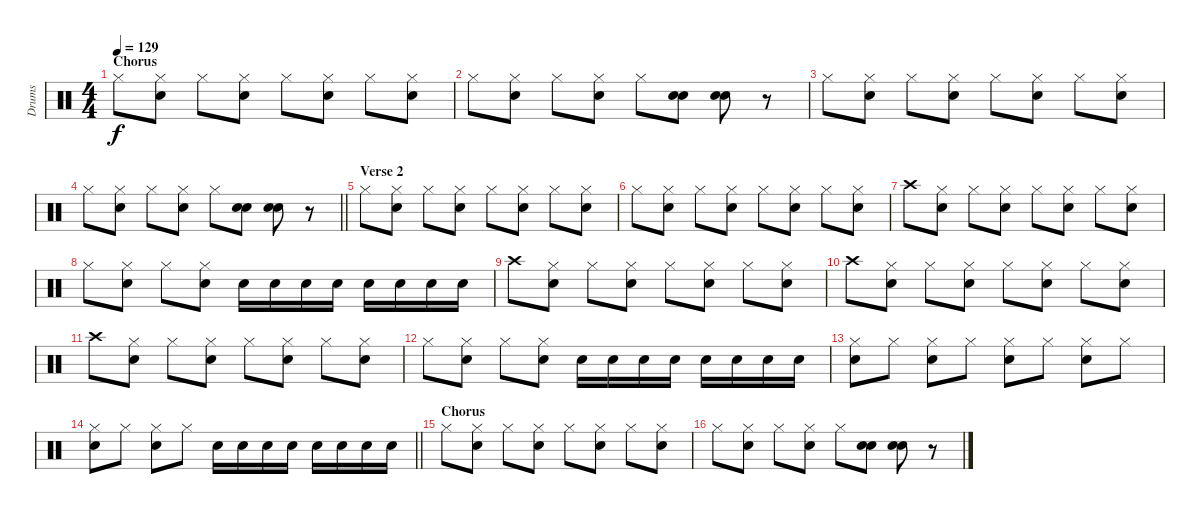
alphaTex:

\track ("Drums" "Drums") {instrument percussion}
\staff {score}
\articulation defaults
\ts (4 4)
\section ("" "Chorus")
\tempo 129
\clef neutral
\ks c "Hi-Hat (closed)".8{dy f}
("Hi-Hat (closed)" "Electric Snare (hit)").8 "Hi-Hat (closed)".8 ("Hi-Hat (closed)" "Electric Snare (hit)").8 "Hi-Hat (closed)".8 ("Hi-Hat (closed)" "Electric Snare (hit)").8 "Hi-Hat (closed)".8 ("Hi-Hat (closed)" "Electric Snare (hit)").8 |
"Hi-Hat (closed)".8 ("Hi-Hat (closed)" "Electric Snare (hit)").8 "Hi-Hat (closed)".8 ("Hi-Hat (closed)" "Electric Snare (hit)").8 "Hi-Hat (closed)".8 ("Electric Snare (hit)" "Electric Snare (hit)").8 ("Electric Snare (hit)" "Electric Snare (hit)").8 r.8 |
"Hi-Hat (closed)".8 ("Hi-Hat (closed)" "Electric Snare (hit)").8 "Hi-Hat (closed)".8 ("Hi-Hat (closed)" "Electric Snare (hit)").8 "Hi-Hat (closed)".8 ("Hi-Hat (closed)" "Electric Snare (hit)").8 "Hi-Hat (closed)".8 ("Hi-Hat (closed)" "Electric Snare (hit)").8 |
\barLineRight lightlight "Hi-Hat (closed)".8
("Hi-Hat (closed)" "Electric Snare (hit)").8 "Hi-Hat (closed)".8 ("Hi-Hat (closed)" "Electric Snare (hit)").8 "Hi-Hat (closed)".8 ("Electric Snare (hit)" "Electric Snare (hit)").8 ("Electric Snare (hit)" "Electric Snare (hit)").8 r.8 |
\section ("" "Verse 2")
"Hi-Hat (closed)".8 ("Hi-Hat (closed)" "Electric Snare (hit)").8 "Hi-Hat (closed)".8 ("Hi-Hat (closed)" "Electric Snare (hit)").8 "Hi-Hat (closed)".8 ("Hi-Hat (closed)" "Electric Snare (hit)").8 "Hi-Hat (closed)".8 ("Hi-Hat (closed)" "Electric Snare (hit)").8 |
"Hi-Hat (closed)".8 ("Hi-Hat (closed)" "Electric Snare (hit)").8 "Hi-Hat (closed)".8 ("Hi-Hat (closed)" "Electric Snare (hit)").8 "Hi-Hat (closed)".8 ("Hi-Hat (closed)" "Electric Snare (hit)").8 "Hi-Hat (closed)".8 ("Hi-Hat (closed)" "Electric Snare (hit)").8 |
"Crash high (hit)".8 ("Hi-Hat (closed)" "Electric Snare (hit)").8 "Hi-Hat (closed)".8 ("Hi-Hat (closed)" "Electric Snare (hit)").8 "Hi-Hat (closed)".8 ("Hi-Hat (closed)" "Electric Snare (hit)").8 "Hi-Hat (closed)".8 ("Hi-Hat (closed)" "Electric Snare (hit)").8 |
"Hi-Hat (closed)".8 ("Hi-Hat (closed)" "Electric Snare (hit)").8 "Hi-Hat (closed)".8 ("Hi-Hat (closed)" "Electric Snare (hit)").8 "Electric Snare (hit)".16 "Electric Snare (hit)".16 "Electric Snare (hit)".16 "Electric Snare (hit)".16 "Electric Snare (hit)".16 "Electric Snare (hit)".16 "Electric Snare (hit)".16 "Electric Snare (hit)".16 |
"Crash high (hit)".8 ("Hi-Hat (closed)" "Electric Snare (hit)").8 "Hi-Hat (closed)".8 ("Hi-Hat (closed)" "Electric Snare (hit)").8 "Hi-Hat (closed)".8 ("Hi-Hat (closed)" "Electric Snare (hit)").8 "Hi-Hat (closed)".8 ("Hi-Hat (closed)" "Electric Snare (hit)").8 |
"Crash high (hit)".8 ("Hi-Hat (closed)" "Electric Snare (hit)").8 "Hi-Hat (closed)".8 ("Hi-Hat (closed)" "Electric Snare (hit)").8 "Hi-Hat (closed)".8 ("Hi-Hat (closed)" "Electric Snare (hit)").8 "Hi-Hat (closed)".8 ("Hi-Hat (closed)" "Electric Snare (hit)").8 |
"Crash high (hit)".8 ("Hi-Hat (closed)" "Electric Snare (hit)").8 "Hi-Hat (closed)".8 ("Hi-Hat (closed)" "Electric Snare (hit)").8 "Hi-Hat (closed)".8 ("Hi-Hat (closed)" "Electric Snare (hit)").8 "Hi-Hat (closed)".8 ("Hi-Hat (closed)" "Electric Snare (hit)").8 |
"Hi-Hat (closed)".8 ("Hi-Hat (closed)" "Electric Snare (hit)").8 "Hi-Hat (closed)".8 ("Hi-Hat (closed)" "Electric Snare (hit)").8 "Electric Snare (hit)".16 "Electric Snare (hit)".16 "Electric Snare (hit)".16 "Electric Snare (hit)".16 "Electric Snare (hit)".16 "Electric Snare (hit)".16 "Electric Snare (hit)".16 "Electric Snare (hit)".16 |
("Hi-Hat (closed)" "Electric Snare (hit)").8 "Hi-Hat (closed)".8 ("Hi-Hat (closed)" "Electric Snare (hit)").8 "Hi-Hat (closed)".8 ("Hi-Hat (closed)" "Electric Snare (hit)").8 "Hi-Hat (closed)".8 ("Hi-Hat (closed)" "Electric Snare (hit)").8 "Hi-Hat (closed)".8 |
\barLineRight lightlight
("Hi-Hat (closed)" "Electric Snare (hit)").8 "Hi-Hat (closed)".8 ("Hi-Hat (closed)" "Electric Snare (hit)").8 "Hi-Hat (closed)".8 "Electric Snare (hit)".16 "Electric Snare (hit)".16 "Electric Snare (hit)".16 "Electric Snare (hit)".16 "Electric Snare (hit)".16 "Electric Snare (hit)".16 "Electric Snare (hit)".16 "Electric Snare (hit)".16 |
\section ("" "Chorus")
"Hi-Hat (closed)".8 ("Hi-Hat (closed)" "Electric Snare (hit)").8 "Hi-Hat (closed)".8 ("Hi-Hat (closed)" "Electric Snare (hit)").8 "Hi-Hat (closed)".8 ("Hi-Hat (closed)" "Electric Snare (hit)").8 "Hi-Hat (closed)".8 ("Hi-Hat (closed)" "Electric Snare (hit)").8 |
"Hi-Hat (closed)".8 ("Hi-Hat (closed)" "Electric Snare (hit)").8 "Hi-Hat (closed)".8 ("Hi-Hat (closed)" "Electric Snare (hit)").8 "Hi-Hat (closed)".8 ("Electric Snare (hit)" "Electric Snare (hit)").8 ("Electric Snare (hit)" "Electric Snare (hit)").8 r.8
